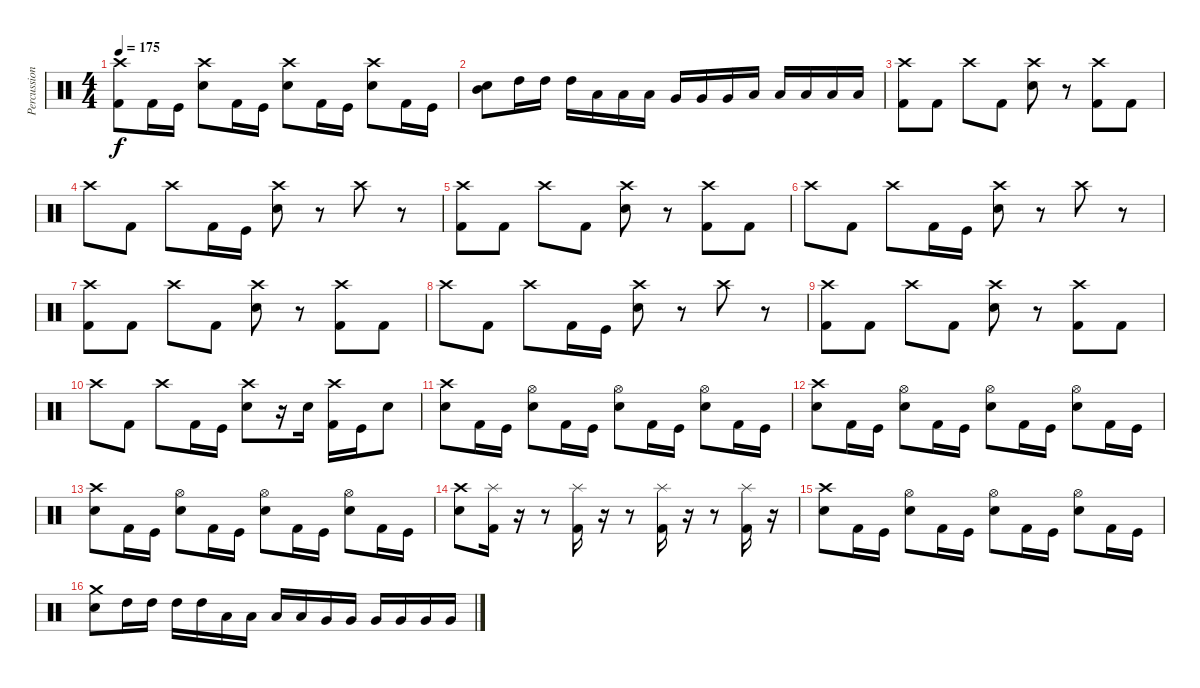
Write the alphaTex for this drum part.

\track ("Percussion" "Percussion") {instrument percussion}
\staff {score}
\articulation defaults
\ts (4 4)
\tempo 175
\clef neutral
\ks c
("Kick (hit) 2" "Crash high (hit)").8{dy f} "Kick (hit) 2".16 "Kick (hit)".16 ("Snare (hit) 2" "Crash high (hit)").8 "Kick (hit) 2".16 "Kick (hit)".16 ("Snare (hit) 2" "Crash high (hit)").8 "Kick (hit) 2".16 "Kick (hit)".16 ("Snare (hit) 2" "Crash high (hit)").8 "Kick (hit) 2".16 "Kick (hit)".16 |
("Snare (hit) 2" "Mid Tom (hit)").8 "High Tom (hit)".16 "High Tom (hit)".16 "High Tom (hit)".16 "Low Tom (hit)".16 "Low Tom (hit)".16 "Low Tom (hit)".16 "Very Low Tom (hit)".16 "Very Low Tom (hit)".16 "Very Low Tom (hit)".16 "Low Floor Tom (hit)".16 "Low Floor Tom (hit)".16 "Low Floor Tom (hit)".16 "Low Floor Tom (hit)".16 "Low Floor Tom (hit)".16 |
("Kick (hit) 2" "Crash high (hit)").8 "Kick (hit) 2".8 "Crash high (hit)".8 "Kick (hit) 2".8 ("Snare (hit) 2" "Crash high (hit)").8 r.8 ("Kick (hit) 2" "Crash high (hit)").8 "Kick (hit) 2".8 |
"Crash high (hit)".8 "Kick (hit) 2".8 "Crash high (hit)".8 "Kick (hit) 2".16 "Kick (hit)".16 ("Snare (hit) 2" "Crash high (hit)").8 r.8 "Crash high (hit)".8 r.8 |
("Kick (hit) 2" "Crash high (hit)").8 "Kick (hit) 2".8 "Crash high (hit)".8 "Kick (hit) 2".8 ("Snare (hit) 2" "Crash high (hit)").8 r.8 ("Kick (hit) 2" "Crash high (hit)").8 "Kick (hit) 2".8 |
"Crash high (hit)".8 "Kick (hit) 2".8 "Crash high (hit)".8 "Kick (hit) 2".16 "Kick (hit)".16 ("Snare (hit) 2" "Crash high (hit)").8 r.8 "Crash high (hit)".8 r.8 |
("Kick (hit) 2" "Crash high (hit)").8 "Kick (hit) 2".8 "Crash high (hit)".8 "Kick (hit) 2".8 ("Snare (hit) 2" "Crash high (hit)").8 r.8 ("Kick (hit) 2" "Crash high (hit)").8 "Kick (hit) 2".8 |
"Crash high (hit)".8 "Kick (hit) 2".8 "Crash high (hit)".8 "Kick (hit) 2".16 "Kick (hit)".16 ("Snare (hit) 2" "Crash high (hit)").8 r.8 "Crash high (hit)".8 r.8 |
("Kick (hit) 2" "Crash high (hit)").8 "Kick (hit) 2".8 "Crash high (hit)".8 "Kick (hit) 2".8 ("Snare (hit) 2" "Crash high (hit)").8 r.8 ("Kick (hit) 2" "Crash high (hit)").8 "Kick (hit) 2".8 |
"Crash high (hit)".8 "Kick (hit) 2".8 "Crash high (hit)".8 "Kick (hit) 2".16 "Kick (hit)".16 ("Snare (hit) 2" "Crash high (hit)").8 r.16 "Snare (hit) 2".16 ("Kick (hit) 2" "Crash high (hit)").16 "Kick (hit)".16 "Snare (hit) 2".8 |
("Snare (hit) 2" "Crash high (hit)").8 "Kick (hit) 2".16 "Kick (hit)".16 ("Snare (hit) 2" "Hi-Hat (open)").8 "Kick (hit) 2".16 "Kick (hit)".16 ("Snare (hit) 2" "Hi-Hat (open)").8 "Kick (hit) 2".16 "Kick (hit)".16 ("Snare (hit) 2" "Hi-Hat (open)").8 "Kick (hit) 2".16 "Kick (hit)".16 |
("Snare (hit) 2" "Crash high (hit)").8 "Kick (hit) 2".16 "Kick (hit)".16 ("Snare (hit) 2" "Hi-Hat (open)").8 "Kick (hit) 2".16 "Kick (hit)".16 ("Snare (hit) 2" "Hi-Hat (open)").8 "Kick (hit) 2".16 "Kick (hit)".16 ("Snare (hit) 2" "Hi-Hat (open)").8 "Kick (hit) 2".16 "Kick (hit)".16 |
("Snare (hit) 2" "Crash high (hit)").8 "Kick (hit) 2".16 "Kick (hit)".16 ("Snare (hit) 2" "Hi-Hat (open)").8 "Kick (hit) 2".16 "Kick (hit)".16 ("Snare (hit) 2" "Hi-Hat (open)").8 "Kick (hit) 2".16 "Kick (hit)".16 ("Snare (hit) 2" "Hi-Hat (open)").8 "Kick (hit) 2".16 "Kick (hit)".16 |
("Snare (hit) 2" "Crash high (hit)").8 ("Kick (hit) 2" "Splash (hit)").16 r.16 r.8 ("Kick (hit) 2" "Splash (hit)").16 r.16 r.8 ("Kick (hit) 2" "Splash (hit)").16 r.16 r.8 ("Kick (hit) 2" "Splash (hit)").16 r.16 |
("Snare (hit) 2" "Crash high (hit)").8 "Kick (hit) 2".16 "Kick (hit)".16 ("Snare (hit) 2" "Hi-Hat (open)").8 "Kick (hit) 2".16 "Kick (hit)".16 ("Snare (hit) 2" "Hi-Hat (open)").8 "Kick (hit) 2".16 "Kick (hit)".16 ("Snare (hit) 2" "Hi-Hat (open)").8 "Kick (hit) 2".16 "Kick (hit)".16 |
("Snare (hit) 2" "Crash medium (hit)").8 "High Tom (hit)".16 "High Tom (hit)".16 "High Tom (hit)".16 "High Tom (hit)".16 "Low Tom (hit)".16 "Low Tom (hit)".16 "Low Tom (hit)".16 "Low Tom (hit)".16 "Very Low Tom (hit)".16 "Very Low Tom (hit)".16 "Very Low Tom (hit)".16 "Very Low Tom (hit)".16 "Very Low Tom (hit)".16 "Very Low Tom (hit)".16
